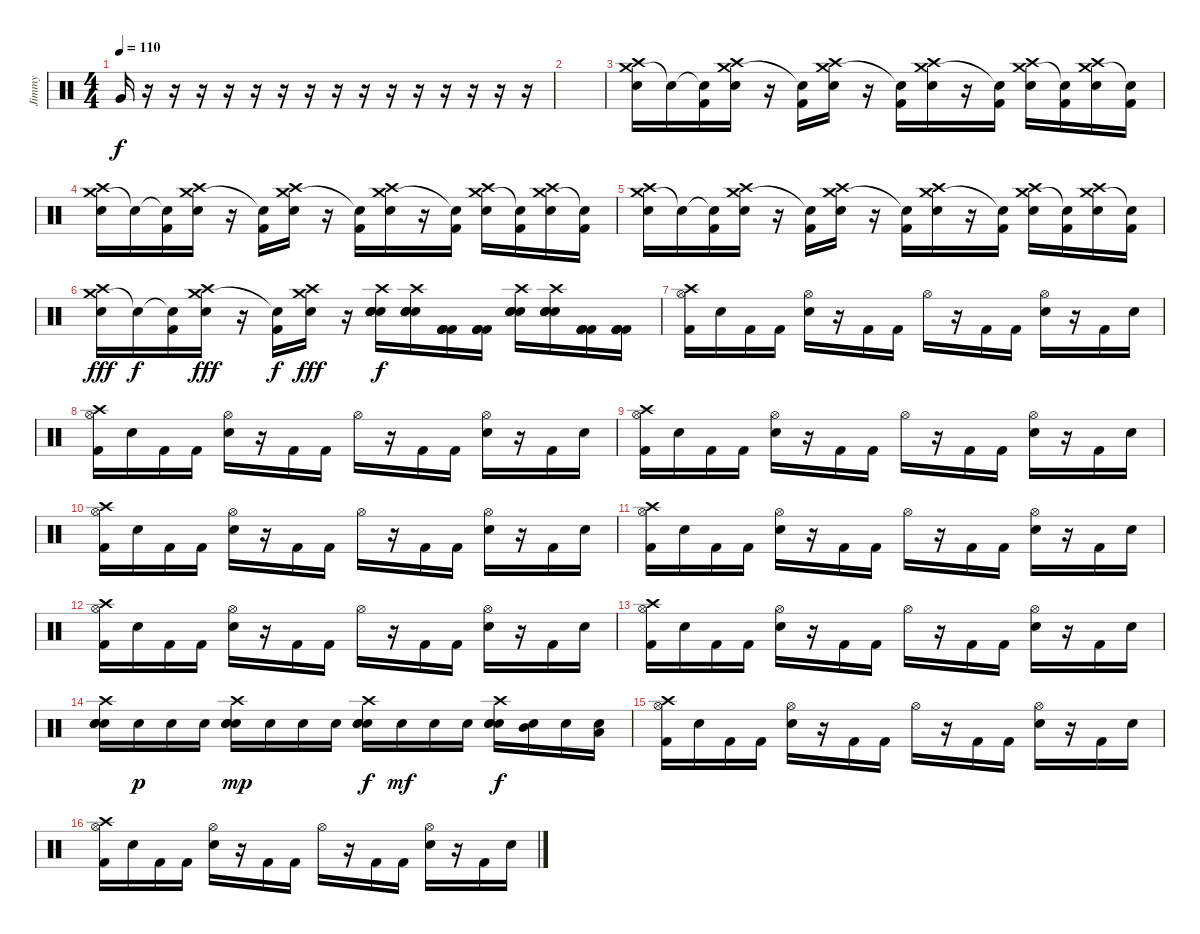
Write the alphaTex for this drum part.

\track ("Jimmy" "Jimmy") {instrument percussion}
\staff {score}
\articulation defaults
\ts (4 4)
\tempo 110
\clef neutral
\ks c "Very Low Tom (hit)".16{dy f}
r.16 r.16 r.16 r.16 r.16 r.16 r.16 r.16 r.16 r.16 r.16 r.16 r.16 r.16 r.16 |
|
("Crash medium (hit)" "Crash high (hit)" "Electric Snare (hit)").16 "Snare (hit)"{t}.16 ("Snare (hit)"{t} "Kick (hit) 2").16 ("Crash medium (hit)" "Crash high (hit)" "Electric Snare (hit)").16 r.16 ("Snare (hit)"{t} "Kick (hit) 2").16 ("Crash medium (hit)" "Crash high (hit)" "Electric Snare (hit)").16 r.16 ("Snare (hit)"{t} "Kick (hit) 2").16 ("Crash medium (hit)" "Crash high (hit)" "Electric Snare (hit)").16 r.16 ("Snare (hit)"{t} "Kick (hit) 2").16 ("Crash medium (hit)" "Crash high (hit)" "Electric Snare (hit)").16 ("Snare (hit)"{t} "Kick (hit) 2").16 ("Crash medium (hit)" "Crash high (hit)" "Electric Snare (hit)").16 ("Snare (hit)"{t} "Kick (hit) 2").16 |
("Crash medium (hit)" "Crash high (hit)" "Electric Snare (hit)").16 "Snare (hit)"{t}.16 ("Snare (hit)"{t} "Kick (hit) 2").16 ("Crash medium (hit)" "Crash high (hit)" "Electric Snare (hit)").16 r.16 ("Snare (hit)"{t} "Kick (hit) 2").16 ("Crash medium (hit)" "Crash high (hit)" "Electric Snare (hit)").16 r.16 ("Snare (hit)"{t} "Kick (hit) 2").16 ("Crash medium (hit)" "Crash high (hit)" "Electric Snare (hit)").16 r.16 ("Snare (hit)"{t} "Kick (hit) 2").16 ("Crash medium (hit)" "Crash high (hit)" "Electric Snare (hit)").16 ("Snare (hit)"{t} "Kick (hit) 2").16 ("Crash medium (hit)" "Crash high (hit)" "Electric Snare (hit)").16 ("Snare (hit)"{t} "Kick (hit) 2").16 |
("Crash medium (hit)" "Crash high (hit)" "Electric Snare (hit)").16 "Snare (hit)"{t}.16 ("Snare (hit)"{t} "Kick (hit) 2").16 ("Crash medium (hit)" "Crash high (hit)" "Electric Snare (hit)").16 r.16 ("Snare (hit)"{t} "Kick (hit) 2").16 ("Crash medium (hit)" "Crash high (hit)" "Electric Snare (hit)").16 r.16 ("Snare (hit)"{t} "Kick (hit) 2").16 ("Crash medium (hit)" "Crash high (hit)" "Electric Snare (hit)").16 r.16 ("Snare (hit)"{t} "Kick (hit) 2").16 ("Crash medium (hit)" "Crash high (hit)" "Electric Snare (hit)").16 ("Snare (hit)"{t} "Kick (hit) 2").16 ("Crash medium (hit)" "Crash high (hit)" "Electric Snare (hit)").16 ("Snare (hit)"{t} "Kick (hit) 2").16 |
("Crash medium (hit)" "Crash high (hit)" "Electric Snare (hit)").16{dy fff} "Snare (hit)"{t}.16{dy f} ("Snare (hit)"{t} "Kick (hit) 2").16 ("Crash medium (hit)" "Crash high (hit)" "Electric Snare (hit)").16{dy fff} r.16 ("Snare (hit)"{t} "Kick (hit) 2").16{dy f} ("Crash medium (hit)" "Crash high (hit)" "Electric Snare (hit)").16{dy fff} r.16 ("Electric Snare (hit)" "Electric Snare (hit)" "Electric Snare (hit)" "Snare (hit)" "Crash high (hit)" "Electric Snare (hit)").16{dy f} ("Electric Snare (hit)" "Electric Snare (hit)" "Electric Snare (hit)" "Crash high (hit)" "Electric Snare (hit)").16 ("Kick (hit) 2" "Kick (hit) 2" "Kick (hit) 2" "Kick (hit) 2").16 ("Kick (hit) 2" "Kick (hit) 2" "Kick (hit) 2" "Kick (hit) 2").16 ("Electric Snare (hit)" "Electric Snare (hit)" "Electric Snare (hit)" "Crash high (hit)" "Electric Snare (hit)").16 ("Electric Snare (hit)" "Electric Snare (hit)" "Electric Snare (hit)" "Crash high (hit)" "Electric Snare (hit)").16 ("Kick (hit) 2" "Kick (hit) 2" "Kick (hit) 2" "Kick (hit) 2" "Kick (hit) 2").16 ("Kick (hit) 2" "Kick (hit) 2" "Kick (hit) 2" "Kick (hit) 2" "Kick (hit) 2").16 |
("Crash high (hit)" "Hi-Hat (open)" "Kick (hit) 2").16 "Electric Snare (hit)".16 "Kick (hit) 2".16 "Kick (hit) 2".16 ("Hi-Hat (open)" "Electric Snare (hit)").16 r.16 "Kick (hit) 2".16 "Kick (hit) 2".16 "Hi-Hat (open)".16 r.16 "Kick (hit) 2".16 "Kick (hit) 2".16 ("Hi-Hat (open)" "Electric Snare (hit)").16 r.16 "Kick (hit) 2".16 "Electric Snare (hit)".16 |
("Crash high (hit)" "Hi-Hat (open)" "Kick (hit) 2").16 "Electric Snare (hit)".16 "Kick (hit) 2".16 "Kick (hit) 2".16 ("Hi-Hat (open)" "Electric Snare (hit)").16 r.16 "Kick (hit) 2".16 "Kick (hit) 2".16 "Hi-Hat (open)".16 r.16 "Kick (hit) 2".16 "Kick (hit) 2".16 ("Hi-Hat (open)" "Electric Snare (hit)").16 r.16 "Kick (hit) 2".16 "Electric Snare (hit)".16 |
("Crash high (hit)" "Hi-Hat (open)" "Kick (hit) 2").16 "Electric Snare (hit)".16 "Kick (hit) 2".16 "Kick (hit) 2".16 ("Hi-Hat (open)" "Electric Snare (hit)").16 r.16 "Kick (hit) 2".16 "Kick (hit) 2".16 "Hi-Hat (open)".16 r.16 "Kick (hit) 2".16 "Kick (hit) 2".16 ("Hi-Hat (open)" "Electric Snare (hit)").16 r.16 "Kick (hit) 2".16 "Electric Snare (hit)".16 |
("Crash high (hit)" "Hi-Hat (open)" "Kick (hit) 2").16 "Electric Snare (hit)".16 "Kick (hit) 2".16 "Kick (hit) 2".16 ("Hi-Hat (open)" "Electric Snare (hit)").16 r.16 "Kick (hit) 2".16 "Kick (hit) 2".16 "Hi-Hat (open)".16 r.16 "Kick (hit) 2".16 "Kick (hit) 2".16 ("Hi-Hat (open)" "Electric Snare (hit)").16 r.16 "Kick (hit) 2".16 "Electric Snare (hit)".16 |
("Crash high (hit)" "Hi-Hat (open)" "Kick (hit) 2").16 "Electric Snare (hit)".16 "Kick (hit) 2".16 "Kick (hit) 2".16 ("Hi-Hat (open)" "Electric Snare (hit)").16 r.16 "Kick (hit) 2".16 "Kick (hit) 2".16 "Hi-Hat (open)".16 r.16 "Kick (hit) 2".16 "Kick (hit) 2".16 ("Hi-Hat (open)" "Electric Snare (hit)").16 r.16 "Kick (hit) 2".16 "Electric Snare (hit)".16 |
("Crash high (hit)" "Hi-Hat (open)" "Kick (hit) 2").16 "Electric Snare (hit)".16 "Kick (hit) 2".16 "Kick (hit) 2".16 ("Hi-Hat (open)" "Electric Snare (hit)").16 r.16 "Kick (hit) 2".16 "Kick (hit) 2".16 "Hi-Hat (open)".16 r.16 "Kick (hit) 2".16 "Kick (hit) 2".16 ("Hi-Hat (open)" "Electric Snare (hit)").16 r.16 "Kick (hit) 2".16 "Electric Snare (hit)".16 |
("Crash high (hit)" "Hi-Hat (open)" "Kick (hit) 2").16 "Electric Snare (hit)".16 "Kick (hit) 2".16 "Kick (hit) 2".16 ("Hi-Hat (open)" "Electric Snare (hit)").16 r.16 "Kick (hit) 2".16 "Kick (hit) 2".16 "Hi-Hat (open)".16 r.16 "Kick (hit) 2".16 "Kick (hit) 2".16 ("Hi-Hat (open)" "Electric Snare (hit)").16 r.16 "Kick (hit) 2".16 "Electric Snare (hit)".16 |
("Electric Snare (hit)" "Electric Snare (hit)" "Crash high (hit)" "Electric Snare (hit)").16 "Electric Snare (hit)".16{dy p} "Electric Snare (hit)".16 "Electric Snare (hit)".16 ("Electric Snare (hit)" "Electric Snare (hit)" "Crash high (hit)" "Electric Snare (hit)").16{dy mp} "Electric Snare (hit)".16 "Electric Snare (hit)".16 "Electric Snare (hit)".16 ("Electric Snare (hit)" "Electric Snare (hit)" "Crash high (hit)" "Electric Snare (hit)").16{dy f} "Electric Snare (hit)".16{dy mf} "Electric Snare (hit)".16 "Electric Snare (hit)".16 ("Electric Snare (hit)" "Electric Snare (hit)" "Crash high (hit)" "Electric Snare (hit)").16{dy f} ("Mid Tom (hit)" "Electric Snare (hit)").16 "Electric Snare (hit)".16 ("Low Tom (hit)" "Electric Snare (hit)").16 |
("Crash high (hit)" "Hi-Hat (open)" "Kick (hit) 2").16 "Electric Snare (hit)".16 "Kick (hit) 2".16 "Kick (hit) 2".16 ("Hi-Hat (open)" "Electric Snare (hit)").16 r.16 "Kick (hit) 2".16 "Kick (hit) 2".16 "Hi-Hat (open)".16 r.16 "Kick (hit) 2".16 "Kick (hit) 2".16 ("Hi-Hat (open)" "Electric Snare (hit)").16 r.16 "Kick (hit) 2".16 "Electric Snare (hit)".16 |
("Crash high (hit)" "Hi-Hat (open)" "Kick (hit) 2").16 "Electric Snare (hit)".16 "Kick (hit) 2".16 "Kick (hit) 2".16 ("Hi-Hat (open)" "Electric Snare (hit)").16 r.16 "Kick (hit) 2".16 "Kick (hit) 2".16 "Hi-Hat (open)".16 r.16 "Kick (hit) 2".16 "Kick (hit) 2".16 ("Hi-Hat (open)" "Electric Snare (hit)").16 r.16 "Kick (hit) 2".16 "Electric Snare (hit)".16
